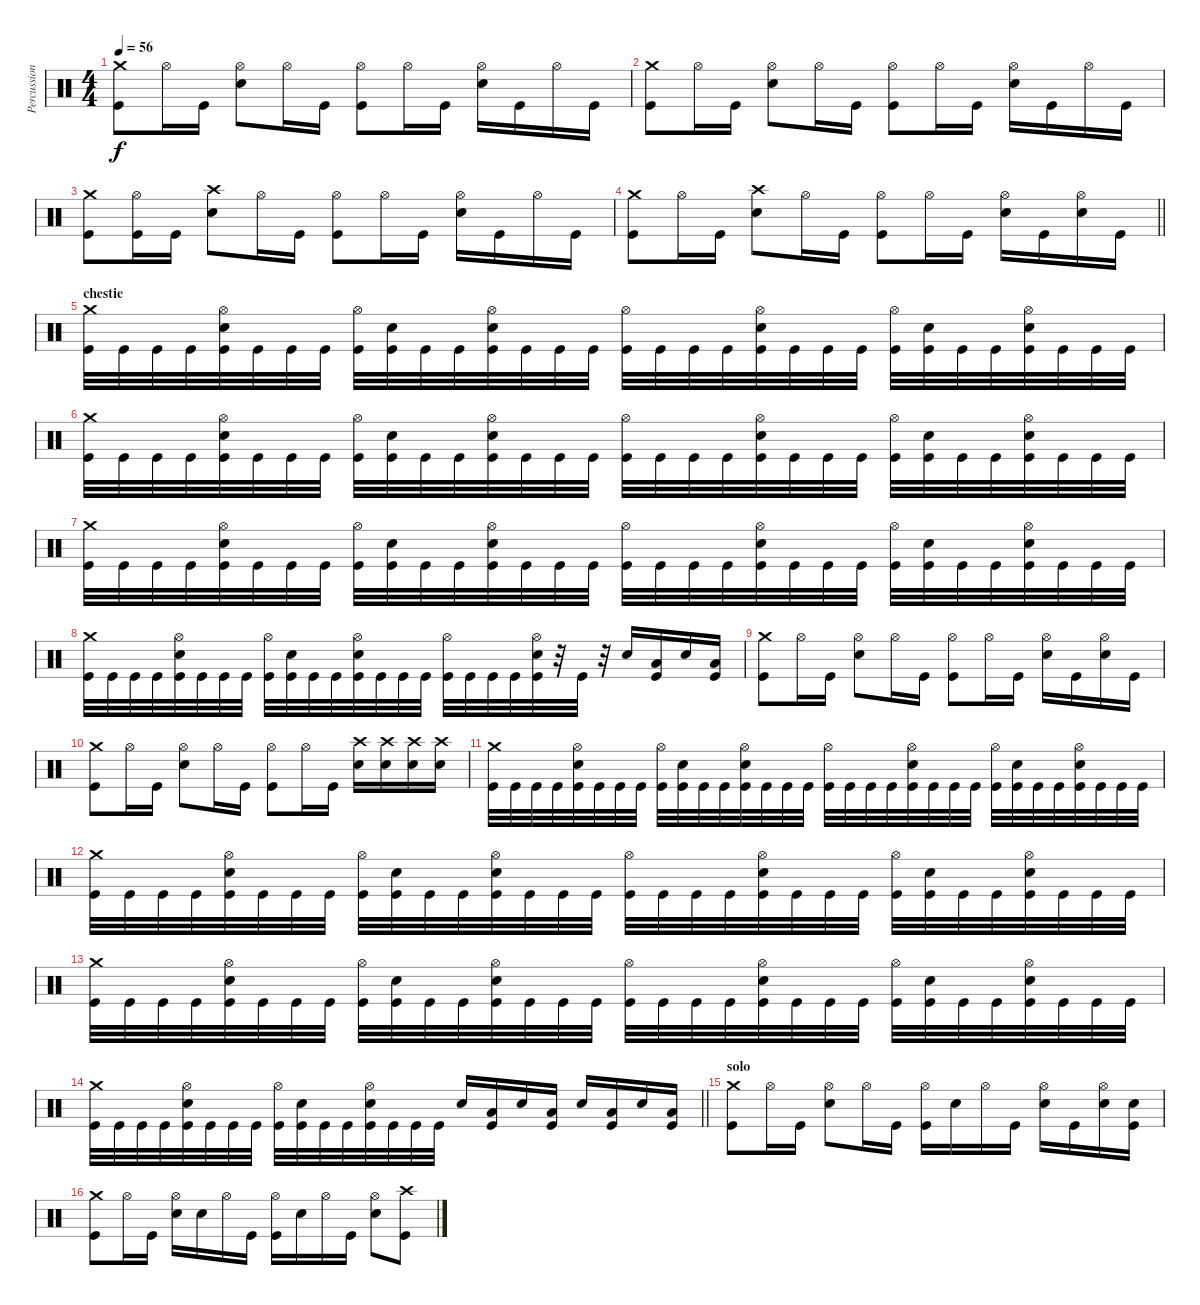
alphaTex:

\track ("Percussion" "Percussion") {instrument percussion}
\staff {score}
\articulation defaults
\ts (4 4)
\tempo 56
\clef neutral
\ks c
("Crash medium (hit)" "Kick (hit)").8{dy f} "Hi-Hat (open)".16 "Kick (hit)".16 ("Hi-Hat (open)" "Electric Snare (hit)").8 "Hi-Hat (open)".16 "Kick (hit)".16 ("Hi-Hat (open)" "Kick (hit)").8 "Hi-Hat (open)".16 "Kick (hit)".16 ("Hi-Hat (open)" "Electric Snare (hit)").16 "Kick (hit)".16 "Hi-Hat (open)".16 "Kick (hit)".16 |
("Crash medium (hit)" "Kick (hit)").8 "Hi-Hat (open)".16 "Kick (hit)".16 ("Hi-Hat (open)" "Electric Snare (hit)").8 "Hi-Hat (open)".16 "Kick (hit)".16 ("Hi-Hat (open)" "Kick (hit)").8 "Hi-Hat (open)".16 "Kick (hit)".16 ("Hi-Hat (open)" "Electric Snare (hit)").16 "Kick (hit)".16 "Hi-Hat (open)".16 "Kick (hit)".16 |
("Crash medium (hit)" "Kick (hit)").8 ("Hi-Hat (open)" "Kick (hit)").16 "Kick (hit)".16 ("Crash high (hit)" "Electric Snare (hit)").8 "Hi-Hat (open)".16 "Kick (hit)".16 ("Hi-Hat (open)" "Kick (hit)").8 "Hi-Hat (open)".16 "Kick (hit)".16 ("Hi-Hat (open)" "Electric Snare (hit)").16 "Kick (hit)".16 "Hi-Hat (open)".16 "Kick (hit)".16 |
\barLineRight lightlight
("Crash medium (hit)" "Kick (hit)").8 "Hi-Hat (open)".16 "Kick (hit)".16 ("Crash high (hit)" "Electric Snare (hit)").8 "Hi-Hat (open)".16 "Kick (hit)".16 ("Hi-Hat (open)" "Kick (hit)").8 "Hi-Hat (open)".16 "Kick (hit)".16 ("Hi-Hat (open)" "Electric Snare (hit)").16 "Kick (hit)".16 ("Hi-Hat (open)" "Electric Snare (hit)").16 "Kick (hit)".16 |
\section ("" "chestie")
("Crash medium (hit)" "Kick (hit)").32 "Kick (hit)".32 "Kick (hit)".32 "Kick (hit)".32 ("Hi-Hat (open)" "Electric Snare (hit)" "Kick (hit)").32 "Kick (hit)".32 "Kick (hit)".32 "Kick (hit)".32 ("Hi-Hat (open)" "Kick (hit)").32 ("Electric Snare (hit)" "Kick (hit)").32 "Kick (hit)".32 "Kick (hit)".32 ("Hi-Hat (open)" "Electric Snare (hit)" "Kick (hit)").32 "Kick (hit)".32 "Kick (hit)".32 "Kick (hit)".32 ("Hi-Hat (open)" "Kick (hit)").32 "Kick (hit)".32 "Kick (hit)".32 "Kick (hit)".32 ("Hi-Hat (open)" "Electric Snare (hit)" "Kick (hit)").32 "Kick (hit)".32 "Kick (hit)".32 "Kick (hit)".32 ("Hi-Hat (open)" "Kick (hit)").32 ("Electric Snare (hit)" "Kick (hit)").32 "Kick (hit)".32 "Kick (hit)".32 ("Hi-Hat (open)" "Electric Snare (hit)" "Kick (hit)").32 "Kick (hit)".32 "Kick (hit)".32 "Kick (hit)".32 |
("Crash medium (hit)" "Kick (hit)").32 "Kick (hit)".32 "Kick (hit)".32 "Kick (hit)".32 ("Hi-Hat (open)" "Electric Snare (hit)" "Kick (hit)").32 "Kick (hit)".32 "Kick (hit)".32 "Kick (hit)".32 ("Hi-Hat (open)" "Kick (hit)").32 ("Electric Snare (hit)" "Kick (hit)").32 "Kick (hit)".32 "Kick (hit)".32 ("Hi-Hat (open)" "Electric Snare (hit)" "Kick (hit)").32 "Kick (hit)".32 "Kick (hit)".32 "Kick (hit)".32 ("Hi-Hat (open)" "Kick (hit)").32 "Kick (hit)".32 "Kick (hit)".32 "Kick (hit)".32 ("Hi-Hat (open)" "Electric Snare (hit)" "Kick (hit)").32 "Kick (hit)".32 "Kick (hit)".32 "Kick (hit)".32 ("Hi-Hat (open)" "Kick (hit)").32 ("Electric Snare (hit)" "Kick (hit)").32 "Kick (hit)".32 "Kick (hit)".32 ("Hi-Hat (open)" "Electric Snare (hit)" "Kick (hit)").32 "Kick (hit)".32 "Kick (hit)".32 "Kick (hit)".32 |
("Crash medium (hit)" "Kick (hit)").32 "Kick (hit)".32 "Kick (hit)".32 "Kick (hit)".32 ("Hi-Hat (open)" "Electric Snare (hit)" "Kick (hit)").32 "Kick (hit)".32 "Kick (hit)".32 "Kick (hit)".32 ("Hi-Hat (open)" "Kick (hit)").32 ("Electric Snare (hit)" "Kick (hit)").32 "Kick (hit)".32 "Kick (hit)".32 ("Hi-Hat (open)" "Electric Snare (hit)" "Kick (hit)").32 "Kick (hit)".32 "Kick (hit)".32 "Kick (hit)".32 ("Hi-Hat (open)" "Kick (hit)").32 "Kick (hit)".32 "Kick (hit)".32 "Kick (hit)".32 ("Hi-Hat (open)" "Electric Snare (hit)" "Kick (hit)").32 "Kick (hit)".32 "Kick (hit)".32 "Kick (hit)".32 ("Hi-Hat (open)" "Kick (hit)").32 ("Electric Snare (hit)" "Kick (hit)").32 "Kick (hit)".32 "Kick (hit)".32 ("Hi-Hat (open)" "Electric Snare (hit)" "Kick (hit)").32 "Kick (hit)".32 "Kick (hit)".32 "Kick (hit)".32 |
("Crash medium (hit)" "Kick (hit)").32 "Kick (hit)".32 "Kick (hit)".32 "Kick (hit)".32 ("Hi-Hat (open)" "Electric Snare (hit)" "Kick (hit)").32 "Kick (hit)".32 "Kick (hit)".32 "Kick (hit)".32 ("Hi-Hat (open)" "Kick (hit)").32 ("Electric Snare (hit)" "Kick (hit)").32 "Kick (hit)".32 "Kick (hit)".32 ("Hi-Hat (open)" "Electric Snare (hit)" "Kick (hit)").32 "Kick (hit)".32 "Kick (hit)".32 "Kick (hit)".32 ("Hi-Hat (open)" "Kick (hit)").32 "Kick (hit)".32 "Kick (hit)".32 "Kick (hit)".32 ("Hi-Hat (open)" "Electric Snare (hit)" "Kick (hit)").32 r.32 "Kick (hit)".32 r.32 "Electric Snare (hit)".16 ("Low Floor Tom (hit)" "Kick (hit)").16 "Electric Snare (hit)".16 ("Low Floor Tom (hit)" "Kick (hit)").16 |
("Crash medium (hit)" "Kick (hit)").8 "Hi-Hat (open)".16 "Kick (hit)".16 ("Hi-Hat (open)" "Electric Snare (hit)").8 "Hi-Hat (open)".16 "Kick (hit)".16 ("Hi-Hat (open)" "Kick (hit)").8 "Hi-Hat (open)".16 "Kick (hit)".16 ("Hi-Hat (open)" "Electric Snare (hit)").16 "Kick (hit)".16 ("Hi-Hat (open)" "Electric Snare (hit)").16 "Kick (hit)".16 |
("Crash medium (hit)" "Kick (hit)").8 "Hi-Hat (open)".16 "Kick (hit)".16 ("Hi-Hat (open)" "Electric Snare (hit)").8 "Hi-Hat (open)".16 "Kick (hit)".16 ("Hi-Hat (open)" "Kick (hit)").8 "Hi-Hat (open)".16 "Kick (hit)".16 ("Crash high (hit)" "Electric Snare (hit)").16 ("Crash high (hit)" "Electric Snare (hit)").16 ("Crash high (hit)" "Electric Snare (hit)").16 ("Crash high (hit)" "Electric Snare (hit)").16 |
("Crash medium (hit)" "Kick (hit)").32 "Kick (hit)".32 "Kick (hit)".32 "Kick (hit)".32 ("Hi-Hat (open)" "Electric Snare (hit)" "Kick (hit)").32 "Kick (hit)".32 "Kick (hit)".32 "Kick (hit)".32 ("Hi-Hat (open)" "Kick (hit)").32 ("Electric Snare (hit)" "Kick (hit)").32 "Kick (hit)".32 "Kick (hit)".32 ("Hi-Hat (open)" "Electric Snare (hit)" "Kick (hit)").32 "Kick (hit)".32 "Kick (hit)".32 "Kick (hit)".32 ("Hi-Hat (open)" "Kick (hit)").32 "Kick (hit)".32 "Kick (hit)".32 "Kick (hit)".32 ("Hi-Hat (open)" "Electric Snare (hit)" "Kick (hit)").32 "Kick (hit)".32 "Kick (hit)".32 "Kick (hit)".32 ("Hi-Hat (open)" "Kick (hit)").32 ("Electric Snare (hit)" "Kick (hit)").32 "Kick (hit)".32 "Kick (hit)".32 ("Hi-Hat (open)" "Electric Snare (hit)" "Kick (hit)").32 "Kick (hit)".32 "Kick (hit)".32 "Kick (hit)".32 |
("Crash medium (hit)" "Kick (hit)").32 "Kick (hit)".32 "Kick (hit)".32 "Kick (hit)".32 ("Hi-Hat (open)" "Electric Snare (hit)" "Kick (hit)").32 "Kick (hit)".32 "Kick (hit)".32 "Kick (hit)".32 ("Hi-Hat (open)" "Kick (hit)").32 ("Electric Snare (hit)" "Kick (hit)").32 "Kick (hit)".32 "Kick (hit)".32 ("Hi-Hat (open)" "Electric Snare (hit)" "Kick (hit)").32 "Kick (hit)".32 "Kick (hit)".32 "Kick (hit)".32 ("Hi-Hat (open)" "Kick (hit)").32 "Kick (hit)".32 "Kick (hit)".32 "Kick (hit)".32 ("Hi-Hat (open)" "Electric Snare (hit)" "Kick (hit)").32 "Kick (hit)".32 "Kick (hit)".32 "Kick (hit)".32 ("Hi-Hat (open)" "Kick (hit)").32 ("Electric Snare (hit)" "Kick (hit)").32 "Kick (hit)".32 "Kick (hit)".32 ("Hi-Hat (open)" "Electric Snare (hit)" "Kick (hit)").32 "Kick (hit)".32 "Kick (hit)".32 "Kick (hit)".32 |
("Crash medium (hit)" "Kick (hit)").32 "Kick (hit)".32 "Kick (hit)".32 "Kick (hit)".32 ("Hi-Hat (open)" "Electric Snare (hit)" "Kick (hit)").32 "Kick (hit)".32 "Kick (hit)".32 "Kick (hit)".32 ("Hi-Hat (open)" "Kick (hit)").32 ("Electric Snare (hit)" "Kick (hit)").32 "Kick (hit)".32 "Kick (hit)".32 ("Hi-Hat (open)" "Electric Snare (hit)" "Kick (hit)").32 "Kick (hit)".32 "Kick (hit)".32 "Kick (hit)".32 ("Hi-Hat (open)" "Kick (hit)").32 "Kick (hit)".32 "Kick (hit)".32 "Kick (hit)".32 ("Hi-Hat (open)" "Electric Snare (hit)" "Kick (hit)").32 "Kick (hit)".32 "Kick (hit)".32 "Kick (hit)".32 ("Hi-Hat (open)" "Kick (hit)").32 ("Electric Snare (hit)" "Kick (hit)").32 "Kick (hit)".32 "Kick (hit)".32 ("Hi-Hat (open)" "Electric Snare (hit)" "Kick (hit)").32 "Kick (hit)".32 "Kick (hit)".32 "Kick (hit)".32 |
\barLineRight lightlight
("Crash medium (hit)" "Kick (hit)").32 "Kick (hit)".32 "Kick (hit)".32 "Kick (hit)".32 ("Hi-Hat (open)" "Electric Snare (hit)" "Kick (hit)").32 "Kick (hit)".32 "Kick (hit)".32 "Kick (hit)".32 ("Hi-Hat (open)" "Kick (hit)").32 ("Electric Snare (hit)" "Kick (hit)").32 "Kick (hit)".32 "Kick (hit)".32 ("Hi-Hat (open)" "Electric Snare (hit)" "Kick (hit)").32 "Kick (hit)".32 "Kick (hit)".32 "Kick (hit)".32 "Electric Snare (hit)".16 ("Low Floor Tom (hit)" "Kick (hit)").16 "Electric Snare (hit)".16 ("Low Floor Tom (hit)" "Kick (hit)").16 "Electric Snare (hit)".16 ("Low Floor Tom (hit)" "Kick (hit)").16 "Electric Snare (hit)".16 ("Low Floor Tom (hit)" "Kick (hit)").16 |
\section ("" "solo")
("Crash medium (hit)" "Kick (hit)").8 "Hi-Hat (open)".16 "Kick (hit)".16 ("Hi-Hat (open)" "Electric Snare (hit)").8 "Hi-Hat (open)".16 "Kick (hit)".16 ("Hi-Hat (open)" "Kick (hit)").16 "Electric Snare (hit)".16 "Hi-Hat (open)".16 "Kick (hit)".16 ("Hi-Hat (open)" "Electric Snare (hit)").16 "Kick (hit)".16 ("Hi-Hat (open)" "Electric Snare (hit)").16 ("Electric Snare (hit)" "Kick (hit)").16 |
("Crash medium (hit)" "Kick (hit)").8 "Hi-Hat (open)".16 "Kick (hit)".16 ("Hi-Hat (open)" "Electric Snare (hit)").16 "Electric Snare (hit)".16 "Hi-Hat (open)".16 "Kick (hit)".16 ("Hi-Hat (open)" "Kick (hit)").16 "Electric Snare (hit)".16 "Hi-Hat (open)".16 "Kick (hit)".16 ("Hi-Hat (open)" "Electric Snare (hit)").8 ("Crash high (hit)" "Kick (hit)").8
